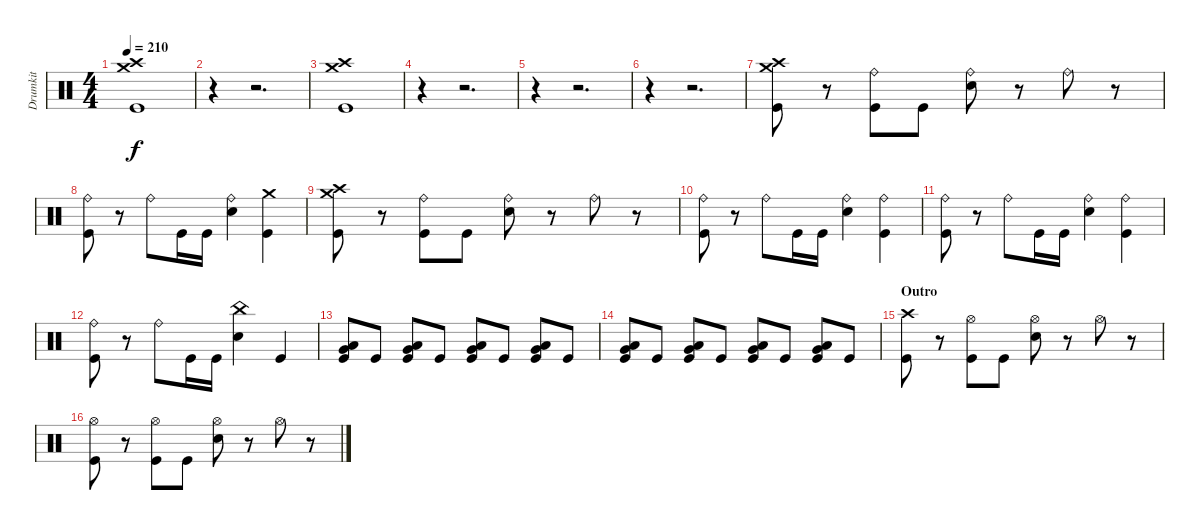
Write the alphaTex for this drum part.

\track ("Drumkit" "Drumkit") {instrument percussion}
\staff {score}
\articulation defaults
\ts (4 4)
\tempo 210
\clef neutral
\ks c
("Crash high (hit)" "Crash medium (hit)" "Kick (hit)").1{dy f} |
r.4 r.2{d} |
("Crash high (hit)" "Crash medium (hit)" "Kick (hit)").1 |
r.4 r.2{d} |
r.4 r.2{d} |
r.4 r.2{d} |
("Crash high (hit)" "Crash medium (hit)" "Kick (hit)").8 r.8 ("Ride (bell)" "Kick (hit)").8 "Kick (hit)".8 ("Ride (bell)" "Snare (hit) 2").8 r.8 "Ride (bell)".8 r.8 |
("Ride (bell)" "Kick (hit)").8 r.8 "Ride (bell)".8 "Kick (hit)".16 "Kick (hit)".16 ("Ride (bell)" "Snare (hit) 2").4 ("Crash medium (hit)" "Kick (hit)").4 |
("Crash high (hit)" "Crash medium (hit)" "Kick (hit)").8 r.8 ("Ride (bell)" "Kick (hit)").8 "Kick (hit)".8 ("Ride (bell)" "Snare (hit) 2").8 r.8 "Ride (bell)".8 r.8 |
("Ride (bell)" "Kick (hit)").8 r.8 "Ride (bell)".8 "Kick (hit)".16 "Kick (hit)".16 ("Ride (bell)" "Snare (hit) 2").4 ("Ride (bell)" "Kick (hit)").4 |
("Ride (bell)" "Kick (hit)").8 r.8 "Ride (bell)".8 "Kick (hit)".16 "Kick (hit)".16 ("Ride (bell)" "Snare (hit) 2").4 ("Ride (bell)" "Kick (hit)").4 |
("Ride (bell)" "Kick (hit)").8 r.8 "Ride (bell)".8 "Kick (hit)".16 "Kick (hit)".16 ("China (hit)" "Snare (hit) 2").4 "Kick (hit)".4 |
("Low Tom (hit)" "Very Low Tom (hit)" "Kick (hit)").8 "Kick (hit)".8 ("Low Tom (hit)" "Very Low Tom (hit)" "Kick (hit)").8 "Kick (hit)".8 ("Low Tom (hit)" "Very Low Tom (hit)" "Kick (hit)").8 "Kick (hit)".8 ("Low Tom (hit)" "Very Low Tom (hit)" "Kick (hit)").8 "Kick (hit)".8 |
("Low Tom (hit)" "Very Low Tom (hit)" "Kick (hit)").8 "Kick (hit)".8 ("Low Tom (hit)" "Very Low Tom (hit)" "Kick (hit)").8 "Kick (hit)".8 ("Low Tom (hit)" "Very Low Tom (hit)" "Kick (hit)").8 "Kick (hit)".8 ("Low Tom (hit)" "Very Low Tom (hit)" "Kick (hit)").8 "Kick (hit)".8 |
\section ("" "Outro")
("Crash high (hit)" "Kick (hit)").8 r.8 ("Hi-Hat (open)" "Kick (hit)").8 "Kick (hit)".8 ("Hi-Hat (open)" "Snare (hit) 2").8 r.8 "Hi-Hat (open)".8 r.8 |
("Hi-Hat (open)" "Kick (hit)").8 r.8 ("Hi-Hat (open)" "Kick (hit)").8 "Kick (hit)".8 ("Hi-Hat (open)" "Snare (hit) 2").8 r.8 "Hi-Hat (open)".8 r.8
